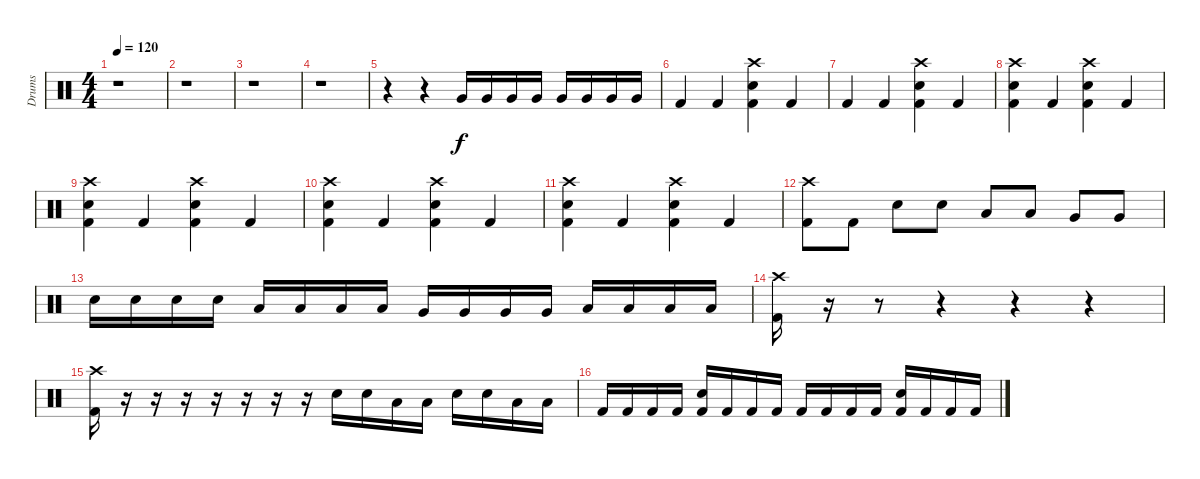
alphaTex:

\track ("Drums" "Drums") {instrument percussion}
\staff {score}
\articulation defaults
\ts (4 4)
\tempo 120
\clef neutral
\ks c
r.1{dy f} |
r.1 |
r.1 |
r.1 |
r.4 r.4 "Very Low Tom (hit)".16 "Very Low Tom (hit)".16 "Very Low Tom (hit)".16 "Very Low Tom (hit)".16 "Very Low Tom (hit)".16 "Very Low Tom (hit)".16 "Very Low Tom (hit)".16 "Very Low Tom (hit)".16 |
"Kick (hit) 2".4 "Kick (hit) 2".4 ("Kick (hit) 2" "Electric Snare (hit)" "Crash high (hit)").4 "Kick (hit) 2".4 |
"Kick (hit) 2".4 "Kick (hit) 2".4 ("Kick (hit) 2" "Electric Snare (hit)" "Crash high (hit)").4 "Kick (hit) 2".4 |
("Kick (hit) 2" "Electric Snare (hit)" "Crash high (hit)").4 "Kick (hit) 2".4 ("Kick (hit) 2" "Electric Snare (hit)" "Crash high (hit)").4 "Kick (hit) 2".4 |
("Kick (hit) 2" "Electric Snare (hit)" "Crash high (hit)").4 "Kick (hit) 2".4 ("Kick (hit) 2" "Electric Snare (hit)" "Crash high (hit)").4 "Kick (hit) 2".4 |
("Kick (hit) 2" "Electric Snare (hit)" "Crash high (hit)").4 "Kick (hit) 2".4 ("Kick (hit) 2" "Electric Snare (hit)" "Crash high (hit)").4 "Kick (hit) 2".4 |
("Kick (hit) 2" "Electric Snare (hit)" "Crash high (hit)").4 "Kick (hit) 2".4 ("Kick (hit) 2" "Electric Snare (hit)" "Crash high (hit)").4 "Kick (hit) 2".4 |
("Kick (hit) 2" "Crash high (hit)").8 "Kick (hit) 2".8 "Electric Snare (hit)".8 "Electric Snare (hit)".8 "Low Tom (hit)".8 "Low Tom (hit)".8 "Very Low Tom (hit)".8 "Very Low Tom (hit)".8 |
"Electric Snare (hit)".16 "Electric Snare (hit)".16 "Electric Snare (hit)".16 "Electric Snare (hit)".16 "Low Tom (hit)".16 "Low Tom (hit)".16 "Low Tom (hit)".16 "Low Tom (hit)".16 "Very Low Tom (hit)".16 "Very Low Tom (hit)".16 "Very Low Tom (hit)".16 "Very Low Tom (hit)".16 "Low Floor Tom (hit)".16 "Low Floor Tom (hit)".16 "Low Floor Tom (hit)".16 "Low Floor Tom (hit)".16 |
("Kick (hit) 2" "Crash high (hit)").16 r.16 r.8 r.4 r.4 r.4 |
("Kick (hit) 2" "Crash high (hit)").16 r.16 r.16 r.16 r.16 r.16 r.16 r.16 "Electric Snare (hit)".16 "Electric Snare (hit)".16 "Low Tom (hit)".16 "Low Tom (hit)".16 "Electric Snare (hit)".16 "Electric Snare (hit)".16 "Low Tom (hit)".16 "Low Tom (hit)".16 |
"Kick (hit) 2".16 "Kick (hit) 2".16 "Kick (hit) 2".16 "Kick (hit) 2".16 ("Kick (hit) 2" "Electric Snare (hit)").16 "Kick (hit) 2".16 "Kick (hit) 2".16 "Kick (hit) 2".16 "Kick (hit) 2".16 "Kick (hit) 2".16 "Kick (hit) 2".16 "Kick (hit) 2".16 ("Kick (hit) 2" "Electric Snare (hit)").16 "Kick (hit) 2".16 "Kick (hit) 2".16 "Kick (hit) 2".16
